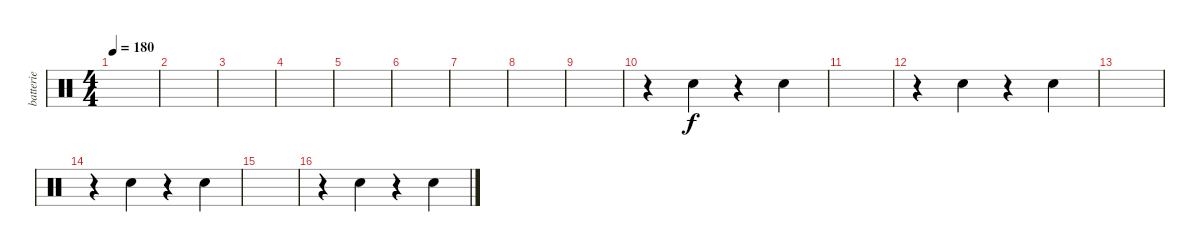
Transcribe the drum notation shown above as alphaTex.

\track ("batterie" "batterie") {instrument percussion}
\staff {score}
\articulation defaults
\ts (4 4)
\tempo 180
\clef neutral
\ks c
|
|
|
|
|
|
|
|
|
r.4 "Snare (hit) 2".4 r.4 "Snare (hit) 2".4 |
|
r.4 "Snare (hit) 2".4 r.4 "Snare (hit) 2".4 |
|
r.4 "Snare (hit) 2".4 r.4 "Snare (hit) 2".4 |
|
r.4 "Snare (hit) 2".4 r.4 "Snare (hit) 2".4
